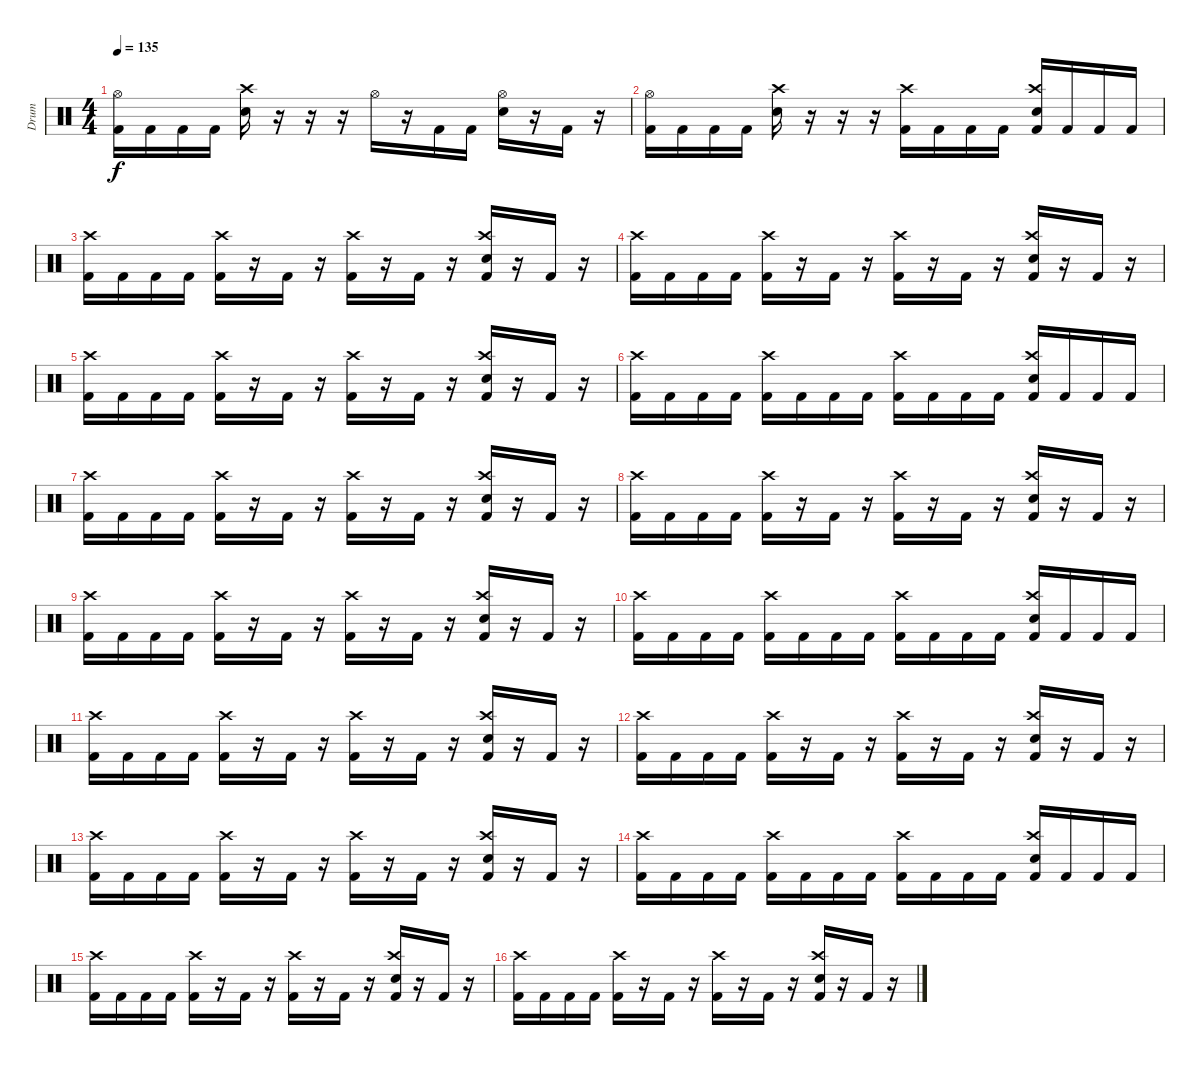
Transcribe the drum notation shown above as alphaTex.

\track ("Drum" "Drum") {instrument percussion}
\staff {score}
\articulation defaults
\ts (4 4)
\tempo 135
\clef neutral
\ks c
("Hi-Hat (open)" "Kick (hit) 2").16{dy f} "Kick (hit) 2".16 "Kick (hit) 2".16 "Kick (hit) 2".16 ("Crash high (hit)" "Electric Snare (hit)").16 r.16 r.16 r.16 "Hi-Hat (open)".16 r.16 "Kick (hit) 2".16 "Kick (hit) 2".16 ("Hi-Hat (open)" "Electric Snare (hit)").16 r.16 "Kick (hit) 2".16 r.16 |
("Hi-Hat (open)" "Kick (hit) 2").16 "Kick (hit) 2".16 "Kick (hit) 2".16 "Kick (hit) 2".16 ("Crash high (hit)" "Electric Snare (hit)").16 r.16 r.16 r.16 ("Crash high (hit)" "Kick (hit) 2").16 "Kick (hit) 2".16 "Kick (hit) 2".16 "Kick (hit) 2".16 ("Crash high (hit)" "Electric Snare (hit)" "Kick (hit) 2").16 "Kick (hit) 2".16 "Kick (hit) 2".16 "Kick (hit) 2".16 |
("Crash high (hit)" "Kick (hit) 2").16 "Kick (hit) 2".16 "Kick (hit) 2".16 "Kick (hit) 2".16 ("Crash high (hit)" "Kick (hit) 2").16 r.16 "Kick (hit) 2".16 r.16 ("Crash high (hit)" "Kick (hit) 2").16 r.16 "Kick (hit) 2".16 r.16 ("Crash high (hit)" "Electric Snare (hit)" "Kick (hit) 2").16 r.16 "Kick (hit) 2".16 r.16 |
("Crash high (hit)" "Kick (hit) 2").16 "Kick (hit) 2".16 "Kick (hit) 2".16 "Kick (hit) 2".16 ("Crash high (hit)" "Kick (hit) 2").16 r.16 "Kick (hit) 2".16 r.16 ("Crash high (hit)" "Kick (hit) 2").16 r.16 "Kick (hit) 2".16 r.16 ("Crash high (hit)" "Electric Snare (hit)" "Kick (hit) 2").16 r.16 "Kick (hit) 2".16 r.16 |
("Crash high (hit)" "Kick (hit) 2").16 "Kick (hit) 2".16 "Kick (hit) 2".16 "Kick (hit) 2".16 ("Crash high (hit)" "Kick (hit) 2").16 r.16 "Kick (hit) 2".16 r.16 ("Crash high (hit)" "Kick (hit) 2").16 r.16 "Kick (hit) 2".16 r.16 ("Crash high (hit)" "Electric Snare (hit)" "Kick (hit) 2").16 r.16 "Kick (hit) 2".16 r.16 |
("Crash high (hit)" "Kick (hit) 2").16 "Kick (hit) 2".16 "Kick (hit) 2".16 "Kick (hit) 2".16 ("Crash high (hit)" "Kick (hit) 2").16 "Kick (hit) 2".16 "Kick (hit) 2".16 "Kick (hit) 2".16 ("Crash high (hit)" "Kick (hit) 2").16 "Kick (hit) 2".16 "Kick (hit) 2".16 "Kick (hit) 2".16 ("Crash high (hit)" "Electric Snare (hit)" "Kick (hit) 2").16 "Kick (hit) 2".16 "Kick (hit) 2".16 "Kick (hit) 2".16 |
("Crash high (hit)" "Kick (hit) 2").16 "Kick (hit) 2".16 "Kick (hit) 2".16 "Kick (hit) 2".16 ("Crash high (hit)" "Kick (hit) 2").16 r.16 "Kick (hit) 2".16 r.16 ("Crash high (hit)" "Kick (hit) 2").16 r.16 "Kick (hit) 2".16 r.16 ("Crash high (hit)" "Electric Snare (hit)" "Kick (hit) 2").16 r.16 "Kick (hit) 2".16 r.16 |
("Crash high (hit)" "Kick (hit) 2").16 "Kick (hit) 2".16 "Kick (hit) 2".16 "Kick (hit) 2".16 ("Crash high (hit)" "Kick (hit) 2").16 r.16 "Kick (hit) 2".16 r.16 ("Crash high (hit)" "Kick (hit) 2").16 r.16 "Kick (hit) 2".16 r.16 ("Crash high (hit)" "Electric Snare (hit)" "Kick (hit) 2").16 r.16 "Kick (hit) 2".16 r.16 |
("Crash high (hit)" "Kick (hit) 2").16 "Kick (hit) 2".16 "Kick (hit) 2".16 "Kick (hit) 2".16 ("Crash high (hit)" "Kick (hit) 2").16 r.16 "Kick (hit) 2".16 r.16 ("Crash high (hit)" "Kick (hit) 2").16 r.16 "Kick (hit) 2".16 r.16 ("Crash high (hit)" "Electric Snare (hit)" "Kick (hit) 2").16 r.16 "Kick (hit) 2".16 r.16 |
("Crash high (hit)" "Kick (hit) 2").16 "Kick (hit) 2".16 "Kick (hit) 2".16 "Kick (hit) 2".16 ("Crash high (hit)" "Kick (hit) 2").16 "Kick (hit) 2".16 "Kick (hit) 2".16 "Kick (hit) 2".16 ("Crash high (hit)" "Kick (hit) 2").16 "Kick (hit) 2".16 "Kick (hit) 2".16 "Kick (hit) 2".16 ("Crash high (hit)" "Electric Snare (hit)" "Kick (hit) 2").16 "Kick (hit) 2".16 "Kick (hit) 2".16 "Kick (hit) 2".16 |
("Crash high (hit)" "Kick (hit) 2").16 "Kick (hit) 2".16 "Kick (hit) 2".16 "Kick (hit) 2".16 ("Crash high (hit)" "Kick (hit) 2").16 r.16 "Kick (hit) 2".16 r.16 ("Crash high (hit)" "Kick (hit) 2").16 r.16 "Kick (hit) 2".16 r.16 ("Crash high (hit)" "Electric Snare (hit)" "Kick (hit) 2").16 r.16 "Kick (hit) 2".16 r.16 |
("Crash high (hit)" "Kick (hit) 2").16 "Kick (hit) 2".16 "Kick (hit) 2".16 "Kick (hit) 2".16 ("Crash high (hit)" "Kick (hit) 2").16 r.16 "Kick (hit) 2".16 r.16 ("Crash high (hit)" "Kick (hit) 2").16 r.16 "Kick (hit) 2".16 r.16 ("Crash high (hit)" "Electric Snare (hit)" "Kick (hit) 2").16 r.16 "Kick (hit) 2".16 r.16 |
("Crash high (hit)" "Kick (hit) 2").16 "Kick (hit) 2".16 "Kick (hit) 2".16 "Kick (hit) 2".16 ("Crash high (hit)" "Kick (hit) 2").16 r.16 "Kick (hit) 2".16 r.16 ("Crash high (hit)" "Kick (hit) 2").16 r.16 "Kick (hit) 2".16 r.16 ("Crash high (hit)" "Electric Snare (hit)" "Kick (hit) 2").16 r.16 "Kick (hit) 2".16 r.16 |
("Crash high (hit)" "Kick (hit) 2").16 "Kick (hit) 2".16 "Kick (hit) 2".16 "Kick (hit) 2".16 ("Crash high (hit)" "Kick (hit) 2").16 "Kick (hit) 2".16 "Kick (hit) 2".16 "Kick (hit) 2".16 ("Crash high (hit)" "Kick (hit) 2").16 "Kick (hit) 2".16 "Kick (hit) 2".16 "Kick (hit) 2".16 ("Crash high (hit)" "Electric Snare (hit)" "Kick (hit) 2").16 "Kick (hit) 2".16 "Kick (hit) 2".16 "Kick (hit) 2".16 |
("Crash high (hit)" "Kick (hit) 2").16 "Kick (hit) 2".16 "Kick (hit) 2".16 "Kick (hit) 2".16 ("Crash high (hit)" "Kick (hit) 2").16 r.16 "Kick (hit) 2".16 r.16 ("Crash high (hit)" "Kick (hit) 2").16 r.16 "Kick (hit) 2".16 r.16 ("Crash high (hit)" "Electric Snare (hit)" "Kick (hit) 2").16 r.16 "Kick (hit) 2".16 r.16 |
("Crash high (hit)" "Kick (hit) 2").16 "Kick (hit) 2".16 "Kick (hit) 2".16 "Kick (hit) 2".16 ("Crash high (hit)" "Kick (hit) 2").16 r.16 "Kick (hit) 2".16 r.16 ("Crash high (hit)" "Kick (hit) 2").16 r.16 "Kick (hit) 2".16 r.16 ("Crash high (hit)" "Electric Snare (hit)" "Kick (hit) 2").16 r.16 "Kick (hit) 2".16 r.16
